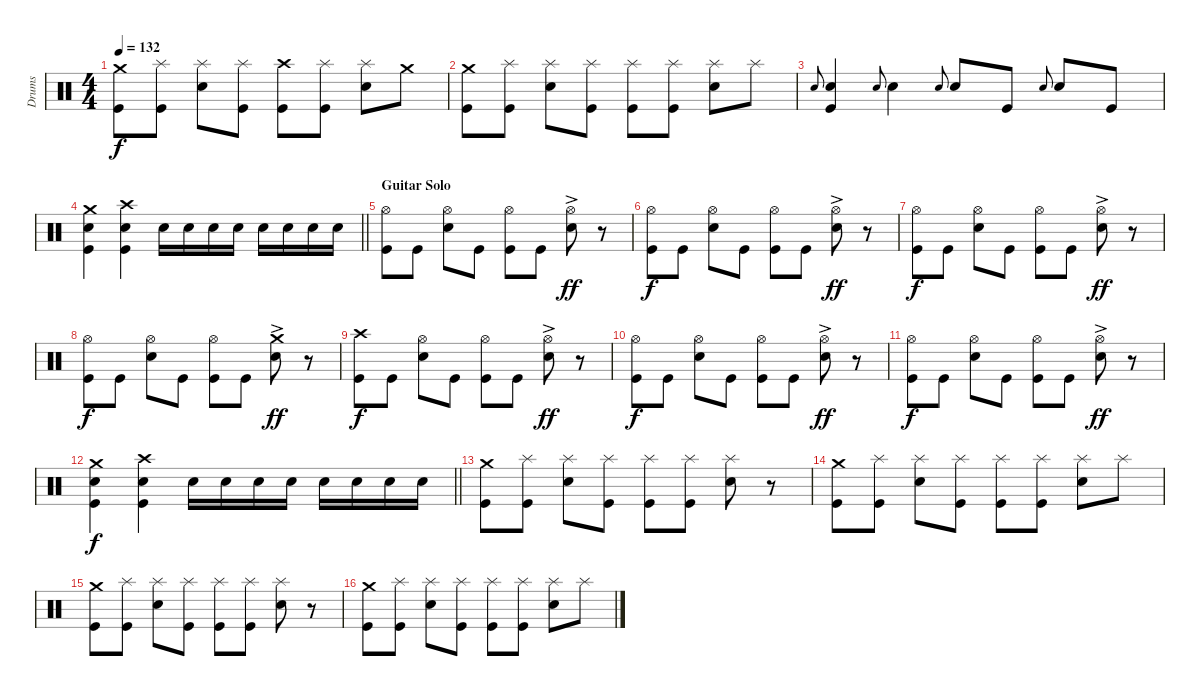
\track ("Drums" "Drums") {instrument percussion}
\staff {score}
\articulation defaults
\ts (4 4)
\tempo 132
\clef neutral
\ks c
("Crash medium (hit)" "Kick (hit)").8{dy f} ("Splash (hit)" "Kick (hit)").8 ("Splash (hit)" "Snare (hit) 2").8 ("Splash (hit)" "Kick (hit)").8 ("Crash high (hit)" "Kick (hit)").8 ("Splash (hit)" "Kick (hit)").8 ("Splash (hit)" "Snare (hit) 2").8 "Crash medium (hit)".8 |
("Crash medium (hit)" "Kick (hit)").8 ("Splash (hit)" "Kick (hit)").8 ("Splash (hit)" "Snare (hit) 2").8 ("Splash (hit)" "Kick (hit)").8 ("Splash (hit)" "Kick (hit)").8 ("Splash (hit)" "Kick (hit)").8 ("Splash (hit)" "Snare (hit) 2").8 "Splash (hit)".8 |
"Snare (hit) 2".8{gr onbeat} ("Snare (hit) 2" "Kick (hit)").4 "Snare (hit) 2".8{gr onbeat} "Snare (hit) 2".4 "Snare (hit) 2".8{gr onbeat} "Snare (hit) 2".8 "Kick (hit)".8 "Snare (hit) 2".8{gr onbeat} "Snare (hit) 2".8 "Kick (hit)".8 |
\barLineRight lightlight
("Crash medium (hit)" "Snare (hit) 2" "Kick (hit)").4 ("Crash high (hit)" "Snare (hit) 2" "Kick (hit)").4 "Snare (hit) 2".16 "Snare (hit) 2".16 "Snare (hit) 2".16 "Snare (hit) 2".16 "Snare (hit) 2".16 "Snare (hit) 2".16 "Snare (hit) 2".16 "Snare (hit) 2".16 |
\section ("" "Guitar Solo")
("Hi-Hat (open)" "Kick (hit)").8 "Kick (hit)".8 ("Hi-Hat (open)" "Snare (hit) 2").8 "Kick (hit)".8 ("Hi-Hat (open)" "Kick (hit)").8 "Kick (hit)".8 ("Hi-Hat (open)"{ac} "Snare (hit) 2").8{dy ff} r.8 |
("Hi-Hat (open)" "Kick (hit)").8{dy f} "Kick (hit)".8 ("Hi-Hat (open)" "Snare (hit) 2").8 "Kick (hit)".8 ("Hi-Hat (open)" "Kick (hit)").8 "Kick (hit)".8 ("Hi-Hat (open)"{ac} "Snare (hit) 2").8{dy ff} r.8 |
("Hi-Hat (open)" "Kick (hit)").8{dy f} "Kick (hit)".8 ("Hi-Hat (open)" "Snare (hit) 2").8 "Kick (hit)".8 ("Hi-Hat (open)" "Kick (hit)").8 "Kick (hit)".8 ("Hi-Hat (open)"{ac} "Snare (hit) 2").8{dy ff} r.8 |
("Hi-Hat (open)" "Kick (hit)").8{dy f} "Kick (hit)".8 ("Hi-Hat (open)" "Snare (hit) 2").8 "Kick (hit)".8 ("Hi-Hat (open)" "Kick (hit)").8 "Kick (hit)".8 ("Crash medium (hit)"{ac} "Snare (hit) 2").8{dy ff} r.8 |
("Crash high (hit)" "Kick (hit)").8{dy f} "Kick (hit)".8 ("Hi-Hat (open)" "Snare (hit) 2").8 "Kick (hit)".8 ("Hi-Hat (open)" "Kick (hit)").8 "Kick (hit)".8 ("Hi-Hat (open)"{ac} "Snare (hit) 2").8{dy ff} r.8 |
("Hi-Hat (open)" "Kick (hit)").8{dy f} "Kick (hit)".8 ("Hi-Hat (open)" "Snare (hit) 2").8 "Kick (hit)".8 ("Hi-Hat (open)" "Kick (hit)").8 "Kick (hit)".8 ("Hi-Hat (open)"{ac} "Snare (hit) 2").8{dy ff} r.8 |
("Hi-Hat (open)" "Kick (hit)").8{dy f} "Kick (hit)".8 ("Hi-Hat (open)" "Snare (hit) 2").8 "Kick (hit)".8 ("Hi-Hat (open)" "Kick (hit)").8 "Kick (hit)".8 ("Hi-Hat (open)"{ac} "Snare (hit) 2").8{dy ff} r.8 |
\barLineRight lightlight
("Crash medium (hit)" "Snare (hit) 2" "Kick (hit)").4{dy f} ("Crash high (hit)" "Snare (hit) 2" "Kick (hit)").4 "Snare (hit) 2".16 "Snare (hit) 2".16 "Snare (hit) 2".16 "Snare (hit) 2".16 "Snare (hit) 2".16 "Snare (hit) 2".16 "Snare (hit) 2".16 "Snare (hit) 2".16 |
\section ("" "")
("Crash medium (hit)" "Kick (hit)").8 ("Splash (hit)" "Kick (hit)").8 ("Splash (hit)" "Snare (hit) 2").8 ("Splash (hit)" "Kick (hit)").8 ("Splash (hit)" "Kick (hit)").8 ("Splash (hit)" "Kick (hit)").8 ("Splash (hit)" "Snare (hit) 2").8 r.8 |
("Crash medium (hit)" "Kick (hit)").8 ("Splash (hit)" "Kick (hit)").8 ("Splash (hit)" "Snare (hit) 2").8 ("Splash (hit)" "Kick (hit)").8 ("Splash (hit)" "Kick (hit)").8 ("Splash (hit)" "Kick (hit)").8 ("Splash (hit)" "Snare (hit) 2").8 "Splash (hit)".8 |
("Crash medium (hit)" "Kick (hit)").8 ("Splash (hit)" "Kick (hit)").8 ("Splash (hit)" "Snare (hit) 2").8 ("Splash (hit)" "Kick (hit)").8 ("Splash (hit)" "Kick (hit)").8 ("Splash (hit)" "Kick (hit)").8 ("Splash (hit)" "Snare (hit) 2").8 r.8 |
("Crash medium (hit)" "Kick (hit)").8 ("Splash (hit)" "Kick (hit)").8 ("Splash (hit)" "Snare (hit) 2").8 ("Splash (hit)" "Kick (hit)").8 ("Splash (hit)" "Kick (hit)").8 ("Splash (hit)" "Kick (hit)").8 ("Splash (hit)" "Snare (hit) 2").8 "Splash (hit)".8
